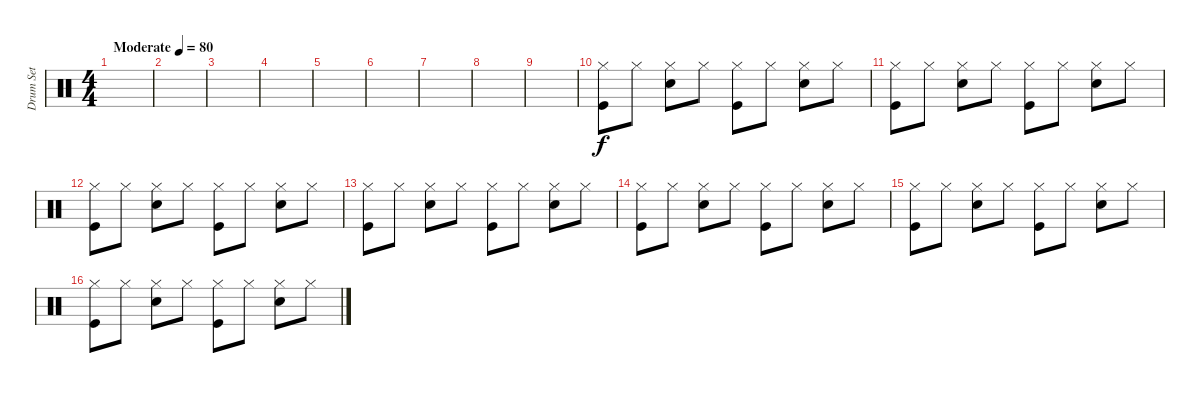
\track ("Drum Set" "Drum Set") {instrument percussion}
\staff {score}
\articulation defaults
\ts (4 4)
\tempo (80 "Moderate")
\clef neutral
\ks c
|
|
|
|
|
|
|
|
|
("Hi-Hat (closed)" "Kick (hit)").8 "Hi-Hat (closed)".8 ("Hi-Hat (closed)" "Electric Snare (hit)").8 "Hi-Hat (closed)".8 ("Hi-Hat (closed)" "Kick (hit)").8 "Hi-Hat (closed)".8 ("Hi-Hat (closed)" "Electric Snare (hit)").8 "Hi-Hat (closed)".8 |
("Hi-Hat (closed)" "Kick (hit)").8 "Hi-Hat (closed)".8 ("Hi-Hat (closed)" "Electric Snare (hit)").8 "Hi-Hat (closed)".8 ("Hi-Hat (closed)" "Kick (hit)").8 "Hi-Hat (closed)".8 ("Hi-Hat (closed)" "Electric Snare (hit)").8 "Hi-Hat (closed)".8 |
("Hi-Hat (closed)" "Kick (hit)").8 "Hi-Hat (closed)".8 ("Hi-Hat (closed)" "Electric Snare (hit)").8 "Hi-Hat (closed)".8 ("Hi-Hat (closed)" "Kick (hit)").8 "Hi-Hat (closed)".8 ("Hi-Hat (closed)" "Electric Snare (hit)").8 "Hi-Hat (closed)".8 |
("Hi-Hat (closed)" "Kick (hit)").8 "Hi-Hat (closed)".8 ("Hi-Hat (closed)" "Electric Snare (hit)").8 "Hi-Hat (closed)".8 ("Hi-Hat (closed)" "Kick (hit)").8 "Hi-Hat (closed)".8 ("Hi-Hat (closed)" "Electric Snare (hit)").8 "Hi-Hat (closed)".8 |
("Hi-Hat (closed)" "Kick (hit)").8 "Hi-Hat (closed)".8 ("Hi-Hat (closed)" "Electric Snare (hit)").8 "Hi-Hat (closed)".8 ("Hi-Hat (closed)" "Kick (hit)").8 "Hi-Hat (closed)".8 ("Hi-Hat (closed)" "Electric Snare (hit)").8 "Hi-Hat (closed)".8 |
("Hi-Hat (closed)" "Kick (hit)").8 "Hi-Hat (closed)".8 ("Hi-Hat (closed)" "Electric Snare (hit)").8 "Hi-Hat (closed)".8 ("Hi-Hat (closed)" "Kick (hit)").8 "Hi-Hat (closed)".8 ("Hi-Hat (closed)" "Electric Snare (hit)").8 "Hi-Hat (closed)".8 |
("Hi-Hat (closed)" "Kick (hit)").8 "Hi-Hat (closed)".8 ("Hi-Hat (closed)" "Electric Snare (hit)").8 "Hi-Hat (closed)".8 ("Hi-Hat (closed)" "Kick (hit)").8 "Hi-Hat (closed)".8 ("Hi-Hat (closed)" "Electric Snare (hit)").8 "Hi-Hat (closed)".8
